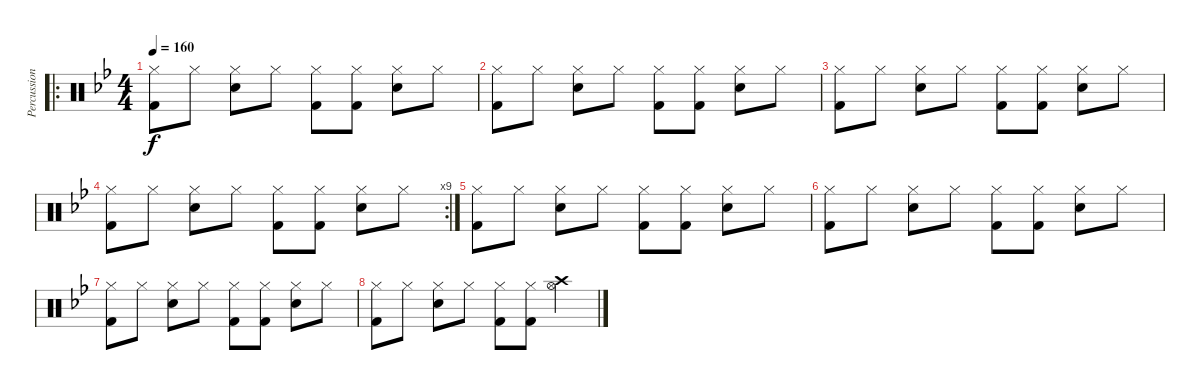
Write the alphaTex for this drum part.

\track ("Percussions" "Percussion") {instrument percussion}
\staff {score}
\articulation defaults
\ro
\ts (4 4)
\tempo 160
\clef neutral
\ks bb
("Hi-Hat (closed)" "Kick (hit) 2").8{dy f} "Hi-Hat (closed)".8 ("Hi-Hat (closed)" "Electric Snare (hit)").8 "Hi-Hat (closed)".8 ("Hi-Hat (closed)" "Kick (hit) 2").8 ("Hi-Hat (closed)" "Kick (hit) 2").8 ("Hi-Hat (closed)" "Electric Snare (hit)").8 "Hi-Hat (closed)".8 |
("Hi-Hat (closed)" "Kick (hit) 2").8 "Hi-Hat (closed)".8 ("Hi-Hat (closed)" "Electric Snare (hit)").8 "Hi-Hat (closed)".8 ("Hi-Hat (closed)" "Kick (hit) 2").8 ("Hi-Hat (closed)" "Kick (hit) 2").8 ("Hi-Hat (closed)" "Electric Snare (hit)").8 "Hi-Hat (closed)".8 |
("Hi-Hat (closed)" "Kick (hit) 2").8 "Hi-Hat (closed)".8 ("Hi-Hat (closed)" "Electric Snare (hit)").8 "Hi-Hat (closed)".8 ("Hi-Hat (closed)" "Kick (hit) 2").8 ("Hi-Hat (closed)" "Kick (hit) 2").8 ("Hi-Hat (closed)" "Electric Snare (hit)").8 "Hi-Hat (closed)".8 |
\rc 9
("Hi-Hat (closed)" "Kick (hit) 2").8 "Hi-Hat (closed)".8 ("Hi-Hat (closed)" "Electric Snare (hit)").8 "Hi-Hat (closed)".8 ("Hi-Hat (closed)" "Kick (hit) 2").8 ("Hi-Hat (closed)" "Kick (hit) 2").8 ("Hi-Hat (closed)" "Electric Snare (hit)").8 "Hi-Hat (closed)".8 |
("Hi-Hat (closed)" "Kick (hit) 2").8 "Hi-Hat (closed)".8 ("Hi-Hat (closed)" "Electric Snare (hit)").8 "Hi-Hat (closed)".8 ("Hi-Hat (closed)" "Kick (hit) 2").8 ("Hi-Hat (closed)" "Kick (hit) 2").8 ("Hi-Hat (closed)" "Electric Snare (hit)").8 "Hi-Hat (closed)".8 |
("Hi-Hat (closed)" "Kick (hit) 2").8 "Hi-Hat (closed)".8 ("Hi-Hat (closed)" "Electric Snare (hit)").8 "Hi-Hat (closed)".8 ("Hi-Hat (closed)" "Kick (hit) 2").8 ("Hi-Hat (closed)" "Kick (hit) 2").8 ("Hi-Hat (closed)" "Electric Snare (hit)").8 "Hi-Hat (closed)".8 |
("Hi-Hat (closed)" "Kick (hit) 2").8 "Hi-Hat (closed)".8 ("Hi-Hat (closed)" "Electric Snare (hit)").8 "Hi-Hat (closed)".8 ("Hi-Hat (closed)" "Kick (hit) 2").8 ("Hi-Hat (closed)" "Kick (hit) 2").8 ("Hi-Hat (closed)" "Electric Snare (hit)").8 "Hi-Hat (closed)".8 |
("Hi-Hat (closed)" "Kick (hit) 2").8 "Hi-Hat (closed)".8 ("Hi-Hat (closed)" "Electric Snare (hit)").8 "Hi-Hat (closed)".8 ("Hi-Hat (closed)" "Kick (hit) 2").8 ("Hi-Hat (closed)" "Kick (hit) 2").8 ("Hi-Hat (open)" "Crash high (hit)").4
